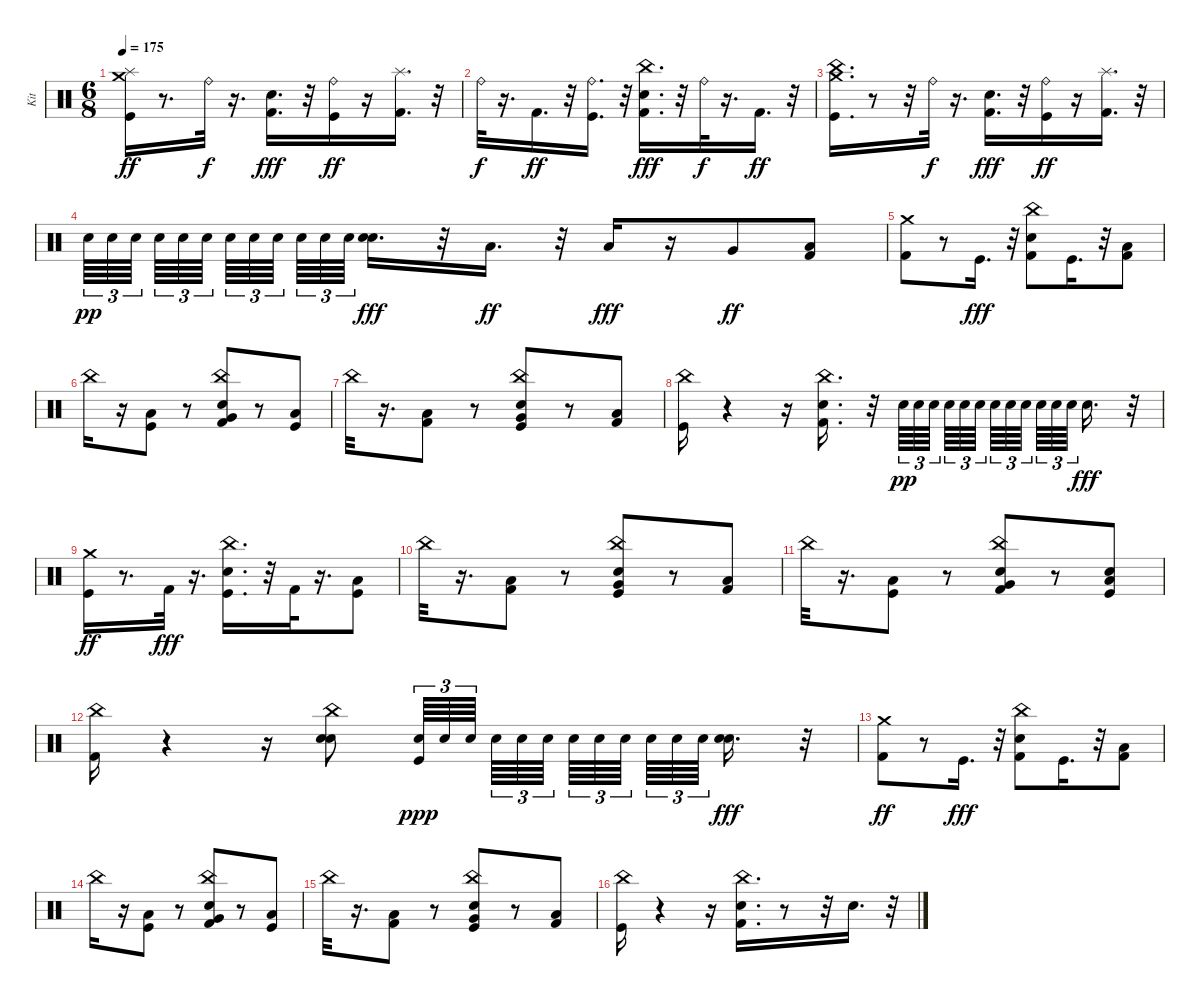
\track ("Kit" "Kit") {instrument percussion}
\staff {score}
\articulation defaults
\ts (6 8)
\tempo 175
\clef neutral
\ks c
("Kick (hit)" "Splash (hit)" "Crash medium (hit)").16{dy ff} r.8{d} "Ride (bell)".32{dy f} r.16{d} ("Kick (hit) 2" "Snare (hit) 2").16{d dy fff} r.32 ("Kick (hit)" "Ride (bell)").16{dy ff} r.16 ("Kick (hit) 2" "Splash (hit)").16{d} r.32 |
"Ride (bell)".32{dy f} r.16{d} "Kick (hit) 2".16{d dy ff} r.32 ("Kick (hit)" "Ride (bell)").16{d} r.32 ("Kick (hit) 2" "Snare (hit) 2" "China (hit)").16{d dy fff} r.32 "Ride (bell)".32{dy f} r.16{d} "Kick (hit) 2".16{d dy ff} r.32 |
("Kick (hit)" "China (hit)" "Crash medium (hit)").16{d} r.8 r.32 "Ride (bell)".32{dy f} r.16{d} ("Kick (hit) 2" "Snare (hit) 2").16{d dy fff} r.32 ("Kick (hit)" "Ride (bell)").16{dy ff} r.16 ("Kick (hit) 2" "Splash (hit)").16{d} r.32 |
"Snare (hit) 2".64{tu (3 2) dy pp} "Snare (hit) 2".64{tu (3 2)} "Snare (hit) 2".64{tu (3 2) beam splitsecondary} "Snare (hit) 2".64{tu (3 2)} "Snare (hit) 2".64{tu (3 2)} "Snare (hit) 2".64{tu (3 2) beam splitsecondary} "Snare (hit) 2".64{tu (3 2)} "Snare (hit) 2".64{tu (3 2)} "Snare (hit) 2".64{tu (3 2) beam splitsecondary} "Snare (hit) 2".64{tu (3 2)} "Snare (hit) 2".64{tu (3 2)} "Snare (hit) 2".64{tu (3 2) beam splitsecondary} ("Snare (hit) 2" "Snare (hit) 2").16{d dy fff} r.32 "Low Tom (hit)".16{d dy ff} r.32 "Low Tom (hit)".16{dy fff} r.16 "Very Low Tom (hit)".8{dy ff} ("Kick (hit) 2" "Low Floor Tom (hit)").8 |
("Kick (hit) 2" "Crash medium (hit)").8 r.8 "Kick (hit)".16{d dy fff} r.32 ("Kick (hit) 2" "Snare (hit) 2" "China (hit)").8 "Kick (hit)".16{d} r.32 ("Kick (hit) 2" "Low Floor Tom (hit)").8 |
"China (hit)".16 r.16 ("Kick (hit)" "Low Floor Tom (hit)").8 r.8 ("Kick (hit) 2" "Snare (hit) 2" "Very Low Tom (hit)" "China (hit)").8 r.8 ("Kick (hit)" "Low Floor Tom (hit)").8 |
"China (hit)".32 r.16{d} ("Kick (hit) 2" "Low Floor Tom (hit)").8 r.8 ("Kick (hit)" "Snare (hit) 2" "Very Low Tom (hit)" "China (hit)").8 r.8 ("Kick (hit) 2" "Low Floor Tom (hit)").8 |
("Kick (hit)" "China (hit)").16 r.4 r.16 ("Kick (hit) 2" "Snare (hit) 2" "China (hit)").16{d} r.32 "Snare (hit) 2".64{tu (3 2) dy pp} "Snare (hit) 2".64{tu (3 2)} "Snare (hit) 2".64{tu (3 2) beam splitsecondary} "Snare (hit) 2".64{tu (3 2)} "Snare (hit) 2".64{tu (3 2)} "Snare (hit) 2".64{tu (3 2) beam splitsecondary} "Snare (hit) 2".64{tu (3 2)} "Snare (hit) 2".64{tu (3 2)} "Snare (hit) 2".64{tu (3 2) beam splitsecondary} "Snare (hit) 2".64{tu (3 2)} "Snare (hit) 2".64{tu (3 2)} "Snare (hit) 2".64{tu (3 2) beam splitsecondary} "Snare (hit) 2".16{d dy fff} r.32 |
("Kick (hit)" "Crash medium (hit)").16{dy ff} r.8{d} "Kick (hit) 2".32{dy fff} r.16{d} ("Kick (hit)" "Snare (hit) 2" "China (hit)").16{d} r.32 "Kick (hit) 2".32 r.16{d} ("Kick (hit)" "Low Floor Tom (hit)").8 |
"China (hit)".32 r.16{d} ("Kick (hit) 2" "Low Floor Tom (hit)").8 r.8 ("Kick (hit)" "Snare (hit) 2" "Very Low Tom (hit)" "China (hit)").8 r.8 ("Kick (hit) 2" "Low Floor Tom (hit)").8 |
"China (hit)".32 r.16{d} ("Kick (hit)" "Low Floor Tom (hit)").8 r.8 ("Kick (hit) 2" "Snare (hit) 2" "Very Low Tom (hit)" "China (hit)").8 r.8 ("Kick (hit)" "Snare (hit) 2" "Low Floor Tom (hit)").8 |
("Kick (hit) 2" "China (hit)").16 r.4 r.16 ("Snare (hit) 2" "China (hit)" "Snare (hit) 2").8 ("Kick (hit)" "Snare (hit) 2").64{tu (3 2) dy ppp} "Snare (hit) 2".64{tu (3 2)} "Snare (hit) 2".64{tu (3 2) beam splitsecondary} "Snare (hit) 2".64{tu (3 2)} "Snare (hit) 2".64{tu (3 2)} "Snare (hit) 2".64{tu (3 2) beam splitsecondary} "Snare (hit) 2".64{tu (3 2)} "Snare (hit) 2".64{tu (3 2)} "Snare (hit) 2".64{tu (3 2) beam splitsecondary} "Snare (hit) 2".64{tu (3 2)} "Snare (hit) 2".64{tu (3 2)} "Snare (hit) 2".64{tu (3 2) beam splitsecondary} ("Snare (hit) 2" "Snare (hit) 2").16{d dy fff} r.32 |
("Kick (hit) 2" "Crash medium (hit)").8{dy ff} r.8 "Kick (hit)".16{d dy fff} r.32 ("Kick (hit) 2" "Snare (hit) 2" "China (hit)").8 "Kick (hit)".16{d} r.32 ("Kick (hit) 2" "Low Floor Tom (hit)").8 |
"China (hit)".16 r.16 ("Kick (hit)" "Low Floor Tom (hit)").8 r.8 ("Kick (hit) 2" "Snare (hit) 2" "Very Low Tom (hit)" "China (hit)").8 r.8 ("Kick (hit)" "Low Floor Tom (hit)").8 |
"China (hit)".32 r.16{d} ("Kick (hit) 2" "Low Floor Tom (hit)").8 r.8 ("Kick (hit)" "Snare (hit) 2" "Very Low Tom (hit)" "China (hit)").8 r.8 ("Kick (hit) 2" "Low Floor Tom (hit)").8 |
("Kick (hit)" "China (hit)").16 r.4 r.16 ("Kick (hit) 2" "Snare (hit) 2" "China (hit)").16{d} r.8 r.32 "Snare (hit) 2".16{d} r.32
